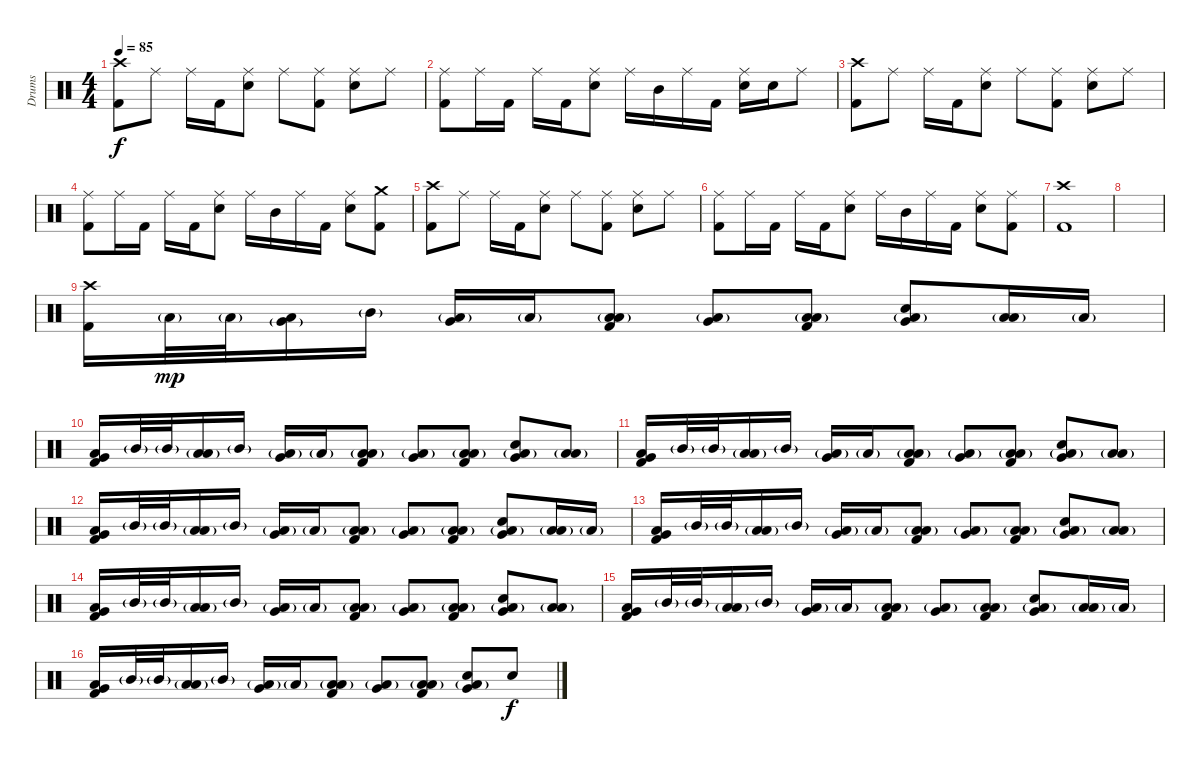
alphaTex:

\track ("Drums" "Drums") {instrument percussion}
\staff {score}
\articulation defaults
\ts (4 4)
\tempo 85
\clef neutral
\ks c
("Crash high (hit)" "Kick (hit) 2").8{dy f} "Ride (middle)".8 "Ride (middle)".16 "Kick (hit) 2".16 ("Ride (middle)" "Electric Snare (hit)").8 "Ride (middle)".8 ("Ride (middle)" "Kick (hit) 2").8 ("Ride (middle)" "Electric Snare (hit)").8 "Ride (middle)".8 |
("Ride (middle)" "Kick (hit) 2").8 "Ride (middle)".16 "Kick (hit) 2".16 "Ride (middle)".16 "Kick (hit) 2".16 ("Ride (middle)" "Electric Snare (hit)").8 "Ride (middle)".16 "Mid Tom (hit)".16 "Ride (middle)".16 "Kick (hit) 2".16 ("Ride (middle)" "Electric Snare (hit)").16 "Electric Snare (hit)".16 "Ride (middle)".8 |
("Crash high (hit)" "Kick (hit) 2").8 "Ride (middle)".8 "Ride (middle)".16 "Kick (hit) 2".16 ("Ride (middle)" "Electric Snare (hit)").8 "Ride (middle)".8 ("Ride (middle)" "Kick (hit) 2").8 ("Ride (middle)" "Electric Snare (hit)").8 "Ride (middle)".8 |
("Ride (middle)" "Kick (hit) 2").8 "Ride (middle)".16 "Kick (hit) 2".16 "Ride (middle)".16 "Kick (hit) 2".16 ("Ride (middle)" "Electric Snare (hit)").8 "Ride (middle)".16 "Mid Tom (hit)".16 "Ride (middle)".16 "Kick (hit) 2".16 ("Ride (middle)" "Electric Snare (hit)").8 ("Crash medium (hit)" "Kick (hit) 2").8 |
("Crash high (hit)" "Kick (hit) 2").8 "Ride (middle)".8 "Ride (middle)".16 "Kick (hit) 2".16 ("Ride (middle)" "Electric Snare (hit)").8 "Ride (middle)".8 ("Ride (middle)" "Kick (hit) 2").8 ("Ride (middle)" "Electric Snare (hit)").8 "Ride (middle)".8 |
("Ride (middle)" "Kick (hit) 2").8 "Ride (middle)".16 "Kick (hit) 2".16 "Ride (middle)".16 "Kick (hit) 2".16 ("Ride (middle)" "Electric Snare (hit)").8 "Ride (middle)".16 "Mid Tom (hit)".16 "Ride (middle)".16 "Kick (hit) 2".16 ("Ride (middle)" "Electric Snare (hit)").8 ("Ride (middle)" "Kick (hit) 2").8 |
("Crash high (hit)" "Kick (hit) 2").1 |
|
("Crash high (hit)" "Kick (hit) 2").16 "Low Tom (hit)"{g}.32{dy mp} "Low Tom (hit)"{g}.32 ("Very Low Tom (hit)"{g} "Low Floor Tom (hit)").16 "Mid Tom (hit)"{g}.16 ("Low Tom (hit)"{g} "Very Low Tom (hit)").16 "Low Tom (hit)"{g}.16 ("Low Tom (hit)"{g} "Low Floor Tom (hit)" "Kick (hit) 2").8 ("Low Tom (hit)"{g} "Very Low Tom (hit)").8 ("Low Tom (hit)"{g} "Low Floor Tom (hit)" "Kick (hit) 2").8 ("Low Tom (hit)"{g} "Electric Snare (hit)" "Very Low Tom (hit)").8 ("Low Tom (hit)"{g} "Low Floor Tom (hit)").16 "Low Tom (hit)"{g}.16 |
("Low Floor Tom (hit)" "Very Low Tom (hit)" "Kick (hit) 2").16 "Mid Tom (hit)"{g}.32 "Mid Tom (hit)"{g}.32 ("Low Tom (hit)"{g} "Low Floor Tom (hit)").16 "Mid Tom (hit)"{g}.16 ("Low Tom (hit)"{g} "Very Low Tom (hit)").16 "Low Tom (hit)"{g}.16 ("Low Tom (hit)"{g} "Low Floor Tom (hit)" "Kick (hit) 2").8 ("Low Tom (hit)"{g} "Very Low Tom (hit)").8 ("Low Tom (hit)"{g} "Low Floor Tom (hit)" "Kick (hit) 2").8 ("Low Tom (hit)"{g} "Electric Snare (hit)" "Very Low Tom (hit)").8 ("Low Tom (hit)"{g} "Low Floor Tom (hit)").8 |
("Low Tom (hit)" "Very Low Tom (hit)" "Kick (hit) 2").16 "Mid Tom (hit)"{g}.32 "Mid Tom (hit)"{g}.32 ("Low Tom (hit)"{g} "Low Floor Tom (hit)").16 "Mid Tom (hit)"{g}.16 ("Low Tom (hit)"{g} "Very Low Tom (hit)").16 "Low Tom (hit)"{g}.16 ("Low Tom (hit)"{g} "Low Floor Tom (hit)" "Kick (hit) 2").8 ("Low Tom (hit)"{g} "Very Low Tom (hit)").8 ("Low Tom (hit)"{g} "Low Floor Tom (hit)" "Kick (hit) 2").8 ("Low Tom (hit)"{g} "Electric Snare (hit)" "Very Low Tom (hit)").8 ("Low Tom (hit)"{g} "Low Floor Tom (hit)").8 |
("Low Tom (hit)" "Very Low Tom (hit)" "Kick (hit) 2").16 "Mid Tom (hit)"{g}.32 "Mid Tom (hit)"{g}.32 ("Low Tom (hit)"{g} "Low Floor Tom (hit)").16 "Mid Tom (hit)"{g}.16 ("Low Tom (hit)"{g} "Very Low Tom (hit)").16 "Low Tom (hit)"{g}.16 ("Low Tom (hit)"{g} "Low Floor Tom (hit)" "Kick (hit) 2").8 ("Low Tom (hit)"{g} "Very Low Tom (hit)").8 ("Low Tom (hit)"{g} "Low Floor Tom (hit)" "Kick (hit) 2").8 ("Low Tom (hit)"{g} "Electric Snare (hit)" "Very Low Tom (hit)").8 ("Low Tom (hit)"{g} "Low Floor Tom (hit)").16 "Low Tom (hit)"{g}.16 |
("Low Tom (hit)" "Very Low Tom (hit)" "Kick (hit) 2").16 "Mid Tom (hit)"{g}.32 "Mid Tom (hit)"{g}.32 ("Low Tom (hit)"{g} "Low Floor Tom (hit)").16 "Mid Tom (hit)"{g}.16 ("Low Tom (hit)"{g} "Very Low Tom (hit)").16 "Low Tom (hit)"{g}.16 ("Low Tom (hit)"{g} "Low Floor Tom (hit)" "Kick (hit) 2").8 ("Low Tom (hit)"{g} "Very Low Tom (hit)").8 ("Low Tom (hit)"{g} "Low Floor Tom (hit)" "Kick (hit) 2").8 ("Low Tom (hit)"{g} "Electric Snare (hit)" "Very Low Tom (hit)").8 ("Low Tom (hit)"{g} "Low Floor Tom (hit)").8 |
("Low Tom (hit)" "Very Low Tom (hit)" "Kick (hit) 2").16 "Mid Tom (hit)"{g}.32 "Mid Tom (hit)"{g}.32 ("Low Tom (hit)"{g} "Low Floor Tom (hit)").16 "Mid Tom (hit)"{g}.16 ("Low Tom (hit)"{g} "Very Low Tom (hit)").16 "Low Tom (hit)"{g}.16 ("Low Tom (hit)"{g} "Low Floor Tom (hit)" "Kick (hit) 2").8 ("Low Tom (hit)"{g} "Very Low Tom (hit)").8 ("Low Tom (hit)"{g} "Low Floor Tom (hit)" "Kick (hit) 2").8 ("Low Tom (hit)"{g} "Electric Snare (hit)" "Very Low Tom (hit)").8 ("Low Tom (hit)"{g} "Low Floor Tom (hit)").8 |
("Low Tom (hit)" "Very Low Tom (hit)" "Kick (hit) 2").16 "Mid Tom (hit)"{g}.32 "Mid Tom (hit)"{g}.32 ("Low Tom (hit)"{g} "Low Floor Tom (hit)").16 "Mid Tom (hit)"{g}.16 ("Low Tom (hit)"{g} "Very Low Tom (hit)").16 "Low Tom (hit)"{g}.16 ("Low Tom (hit)"{g} "Low Floor Tom (hit)" "Kick (hit) 2").8 ("Low Tom (hit)"{g} "Very Low Tom (hit)").8 ("Low Tom (hit)"{g} "Low Floor Tom (hit)" "Kick (hit) 2").8 ("Low Tom (hit)"{g} "Electric Snare (hit)" "Very Low Tom (hit)").8 ("Low Tom (hit)"{g} "Low Floor Tom (hit)").16 "Low Tom (hit)"{g}.16 |
("Low Tom (hit)" "Very Low Tom (hit)" "Kick (hit) 2").16 "Mid Tom (hit)"{g}.32 "Mid Tom (hit)"{g}.32 ("Low Tom (hit)"{g} "Low Floor Tom (hit)").16 "Mid Tom (hit)"{g}.16 ("Low Tom (hit)"{g} "Very Low Tom (hit)").16 "Low Tom (hit)"{g}.16 ("Low Tom (hit)"{g} "Low Floor Tom (hit)" "Kick (hit) 2").8 ("Low Tom (hit)"{g} "Very Low Tom (hit)").8 ("Low Tom (hit)"{g} "Low Floor Tom (hit)" "Kick (hit) 2").8 ("Low Tom (hit)"{g} "Electric Snare (hit)" "Very Low Tom (hit)").8 "Electric Snare (hit)".8{dy f}
